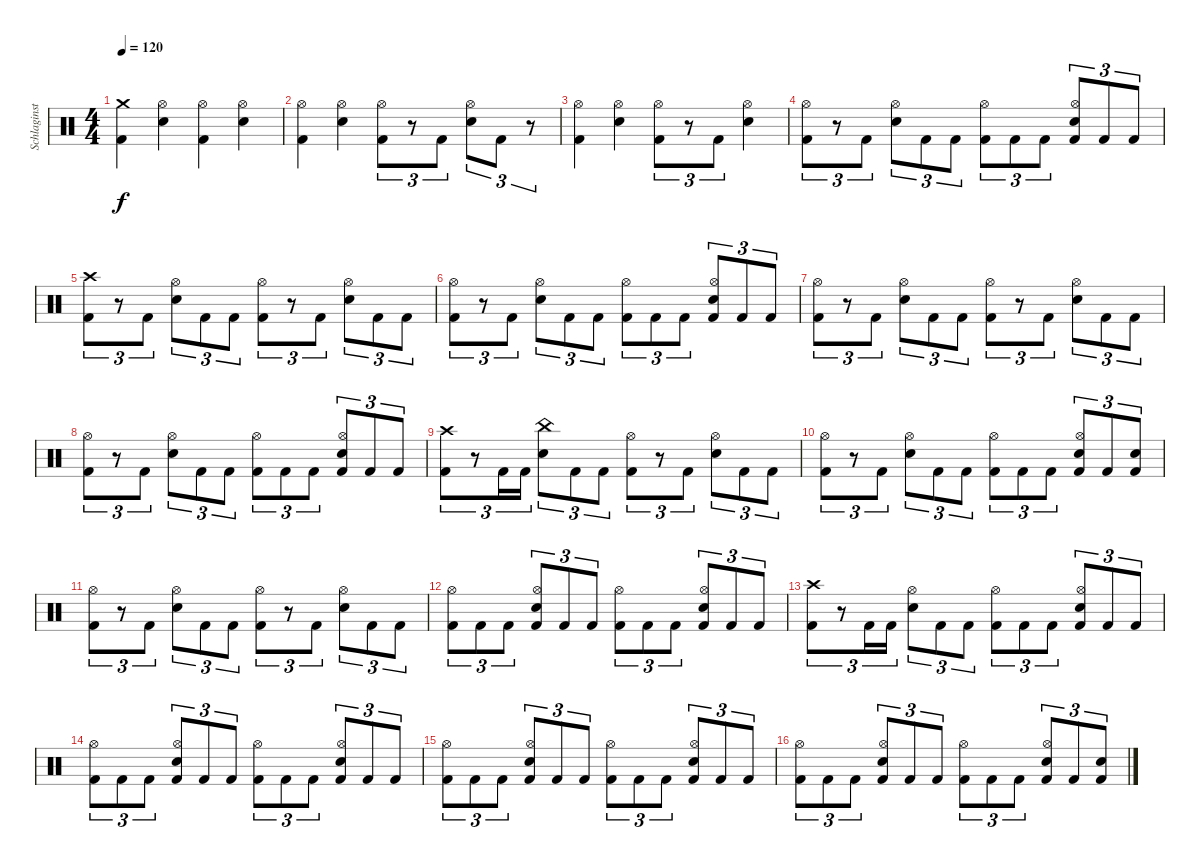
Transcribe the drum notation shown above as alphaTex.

\track ("Schlaginstrumente - Auswahl" "Schlaginst") {instrument percussion}
\staff {score}
\articulation defaults
\ts (4 4)
\tempo 120
\clef neutral
\ks c
("Crash medium (hit)" "Kick (hit) 2").4{dy f} ("Hi-Hat (open)" "Electric Snare (hit)").4 ("Hi-Hat (open)" "Kick (hit) 2").4 ("Hi-Hat (open)" "Electric Snare (hit)").4 |
("Hi-Hat (open)" "Kick (hit) 2").4 ("Hi-Hat (open)" "Electric Snare (hit)").4 ("Hi-Hat (open)" "Kick (hit) 2").8{tu (3 2)} r.8{tu (3 2)} "Kick (hit) 2".8{tu (3 2)} ("Hi-Hat (open)" "Electric Snare (hit)").8{tu (3 2)} "Kick (hit) 2".8{tu (3 2)} r.8{tu (3 2)} |
("Hi-Hat (open)" "Kick (hit) 2").4 ("Hi-Hat (open)" "Electric Snare (hit)").4 ("Hi-Hat (open)" "Kick (hit) 2").8{tu (3 2)} r.8{tu (3 2)} "Kick (hit) 2".8{tu (3 2)} ("Hi-Hat (open)" "Electric Snare (hit)").4 |
("Hi-Hat (open)" "Kick (hit) 2").8{tu (3 2)} r.8{tu (3 2)} "Kick (hit) 2".8{tu (3 2)} ("Hi-Hat (open)" "Electric Snare (hit)").8{tu (3 2)} "Kick (hit) 2".8{tu (3 2)} "Kick (hit) 2".8{tu (3 2)} ("Hi-Hat (open)" "Kick (hit) 2").8{tu (3 2)} "Kick (hit) 2".8{tu (3 2)} "Kick (hit) 2".8{tu (3 2)} ("Hi-Hat (open)" "Electric Snare (hit)" "Kick (hit) 2").8{tu (3 2)} "Kick (hit) 2".8{tu (3 2)} "Kick (hit) 2".8{tu (3 2)} |
("Crash high (hit)" "Kick (hit) 2").8{tu (3 2)} r.8{tu (3 2)} "Kick (hit) 2".8{tu (3 2)} ("Hi-Hat (open)" "Electric Snare (hit)").8{tu (3 2)} "Kick (hit) 2".8{tu (3 2)} "Kick (hit) 2".8{tu (3 2)} ("Hi-Hat (open)" "Kick (hit) 2").8{tu (3 2)} r.8{tu (3 2)} "Kick (hit) 2".8{tu (3 2)} ("Hi-Hat (open)" "Electric Snare (hit)").8{tu (3 2)} "Kick (hit) 2".8{tu (3 2)} "Kick (hit) 2".8{tu (3 2)} |
("Hi-Hat (open)" "Kick (hit) 2").8{tu (3 2)} r.8{tu (3 2)} "Kick (hit) 2".8{tu (3 2)} ("Hi-Hat (open)" "Electric Snare (hit)").8{tu (3 2)} "Kick (hit) 2".8{tu (3 2)} "Kick (hit) 2".8{tu (3 2)} ("Hi-Hat (open)" "Kick (hit) 2").8{tu (3 2)} "Kick (hit) 2".8{tu (3 2)} "Kick (hit) 2".8{tu (3 2)} ("Hi-Hat (open)" "Electric Snare (hit)" "Kick (hit) 2").8{tu (3 2)} "Kick (hit) 2".8{tu (3 2)} "Kick (hit) 2".8{tu (3 2)} |
("Hi-Hat (open)" "Kick (hit) 2").8{tu (3 2)} r.8{tu (3 2)} "Kick (hit) 2".8{tu (3 2)} ("Hi-Hat (open)" "Electric Snare (hit)").8{tu (3 2)} "Kick (hit) 2".8{tu (3 2)} "Kick (hit) 2".8{tu (3 2)} ("Hi-Hat (open)" "Kick (hit) 2").8{tu (3 2)} r.8{tu (3 2)} "Kick (hit) 2".8{tu (3 2)} ("Hi-Hat (open)" "Electric Snare (hit)").8{tu (3 2)} "Kick (hit) 2".8{tu (3 2)} "Kick (hit) 2".8{tu (3 2)} |
("Hi-Hat (open)" "Kick (hit) 2").8{tu (3 2)} r.8{tu (3 2)} "Kick (hit) 2".8{tu (3 2)} ("Hi-Hat (open)" "Electric Snare (hit)").8{tu (3 2)} "Kick (hit) 2".8{tu (3 2)} "Kick (hit) 2".8{tu (3 2)} ("Hi-Hat (open)" "Kick (hit) 2").8{tu (3 2)} "Kick (hit) 2".8{tu (3 2)} "Kick (hit) 2".8{tu (3 2)} ("Hi-Hat (open)" "Electric Snare (hit)" "Kick (hit) 2").8{tu (3 2)} "Kick (hit) 2".8{tu (3 2)} "Kick (hit) 2".8{tu (3 2)} |
("Crash high (hit)" "Kick (hit) 2").8{tu (3 2)} r.8{tu (3 2)} "Kick (hit) 2".16{tu (3 2)} "Kick (hit) 2".16{tu (3 2)} ("China (hit)" "Electric Snare (hit)").8{tu (3 2)} "Kick (hit) 2".8{tu (3 2)} "Kick (hit) 2".8{tu (3 2)} ("Hi-Hat (open)" "Kick (hit) 2").8{tu (3 2)} r.8{tu (3 2)} "Kick (hit) 2".8{tu (3 2)} ("Hi-Hat (open)" "Electric Snare (hit)").8{tu (3 2)} "Kick (hit) 2".8{tu (3 2)} "Kick (hit) 2".8{tu (3 2)} |
("Hi-Hat (open)" "Kick (hit) 2").8{tu (3 2)} r.8{tu (3 2)} "Kick (hit) 2".8{tu (3 2)} ("Hi-Hat (open)" "Electric Snare (hit)").8{tu (3 2)} "Kick (hit) 2".8{tu (3 2)} "Kick (hit) 2".8{tu (3 2)} ("Hi-Hat (open)" "Kick (hit) 2").8{tu (3 2)} "Kick (hit) 2".8{tu (3 2)} "Kick (hit) 2".8{tu (3 2)} ("Hi-Hat (open)" "Electric Snare (hit)" "Kick (hit) 2").8{tu (3 2)} "Kick (hit) 2".8{tu (3 2)} ("Electric Snare (hit)" "Kick (hit) 2").8{tu (3 2)} |
("Hi-Hat (open)" "Kick (hit) 2").8{tu (3 2)} r.8{tu (3 2)} "Kick (hit) 2".8{tu (3 2)} ("Hi-Hat (open)" "Electric Snare (hit)").8{tu (3 2)} "Kick (hit) 2".8{tu (3 2)} "Kick (hit) 2".8{tu (3 2)} ("Hi-Hat (open)" "Kick (hit) 2").8{tu (3 2)} r.8{tu (3 2)} "Kick (hit) 2".8{tu (3 2)} ("Hi-Hat (open)" "Electric Snare (hit)").8{tu (3 2)} "Kick (hit) 2".8{tu (3 2)} "Kick (hit) 2".8{tu (3 2)} |
("Hi-Hat (open)" "Kick (hit) 2").8{tu (3 2)} "Kick (hit) 2".8{tu (3 2)} "Kick (hit) 2".8{tu (3 2)} ("Hi-Hat (open)" "Electric Snare (hit)" "Kick (hit) 2").8{tu (3 2)} "Kick (hit) 2".8{tu (3 2)} "Kick (hit) 2".8{tu (3 2)} ("Hi-Hat (open)" "Kick (hit) 2").8{tu (3 2)} "Kick (hit) 2".8{tu (3 2)} "Kick (hit) 2".8{tu (3 2)} ("Hi-Hat (open)" "Electric Snare (hit)" "Kick (hit) 2").8{tu (3 2)} "Kick (hit) 2".8{tu (3 2)} "Kick (hit) 2".8{tu (3 2)} |
("Crash high (hit)" "Kick (hit) 2").8{tu (3 2)} r.8{tu (3 2)} "Kick (hit) 2".16{tu (3 2)} "Kick (hit) 2".16{tu (3 2)} ("Hi-Hat (open)" "Electric Snare (hit)").8{tu (3 2)} "Kick (hit) 2".8{tu (3 2)} "Kick (hit) 2".8{tu (3 2)} ("Hi-Hat (open)" "Kick (hit) 2").8{tu (3 2)} "Kick (hit) 2".8{tu (3 2)} "Kick (hit) 2".8{tu (3 2)} ("Hi-Hat (open)" "Electric Snare (hit)" "Kick (hit) 2").8{tu (3 2)} "Kick (hit) 2".8{tu (3 2)} "Kick (hit) 2".8{tu (3 2)} |
("Hi-Hat (open)" "Kick (hit) 2").8{tu (3 2)} "Kick (hit) 2".8{tu (3 2)} "Kick (hit) 2".8{tu (3 2)} ("Hi-Hat (open)" "Electric Snare (hit)" "Kick (hit) 2").8{tu (3 2)} "Kick (hit) 2".8{tu (3 2)} "Kick (hit) 2".8{tu (3 2)} ("Hi-Hat (open)" "Kick (hit) 2").8{tu (3 2)} "Kick (hit) 2".8{tu (3 2)} "Kick (hit) 2".8{tu (3 2)} ("Hi-Hat (open)" "Electric Snare (hit)" "Kick (hit) 2").8{tu (3 2)} "Kick (hit) 2".8{tu (3 2)} "Kick (hit) 2".8{tu (3 2)} |
("Hi-Hat (open)" "Kick (hit) 2").8{tu (3 2)} "Kick (hit) 2".8{tu (3 2)} "Kick (hit) 2".8{tu (3 2)} ("Hi-Hat (open)" "Electric Snare (hit)" "Kick (hit) 2").8{tu (3 2)} "Kick (hit) 2".8{tu (3 2)} "Kick (hit) 2".8{tu (3 2)} ("Hi-Hat (open)" "Kick (hit) 2").8{tu (3 2)} "Kick (hit) 2".8{tu (3 2)} "Kick (hit) 2".8{tu (3 2)} ("Hi-Hat (open)" "Electric Snare (hit)" "Kick (hit) 2").8{tu (3 2)} "Kick (hit) 2".8{tu (3 2)} "Kick (hit) 2".8{tu (3 2)} |
("Hi-Hat (open)" "Kick (hit) 2").8{tu (3 2)} "Kick (hit) 2".8{tu (3 2)} "Kick (hit) 2".8{tu (3 2)} ("Hi-Hat (open)" "Electric Snare (hit)" "Kick (hit) 2").8{tu (3 2)} "Kick (hit) 2".8{tu (3 2)} "Kick (hit) 2".8{tu (3 2)} ("Hi-Hat (open)" "Kick (hit) 2").8{tu (3 2)} "Kick (hit) 2".8{tu (3 2)} "Kick (hit) 2".8{tu (3 2)} ("Hi-Hat (open)" "Electric Snare (hit)" "Kick (hit) 2").8{tu (3 2)} "Kick (hit) 2".8{tu (3 2)} ("Electric Snare (hit)" "Kick (hit) 2").8{tu (3 2)}
